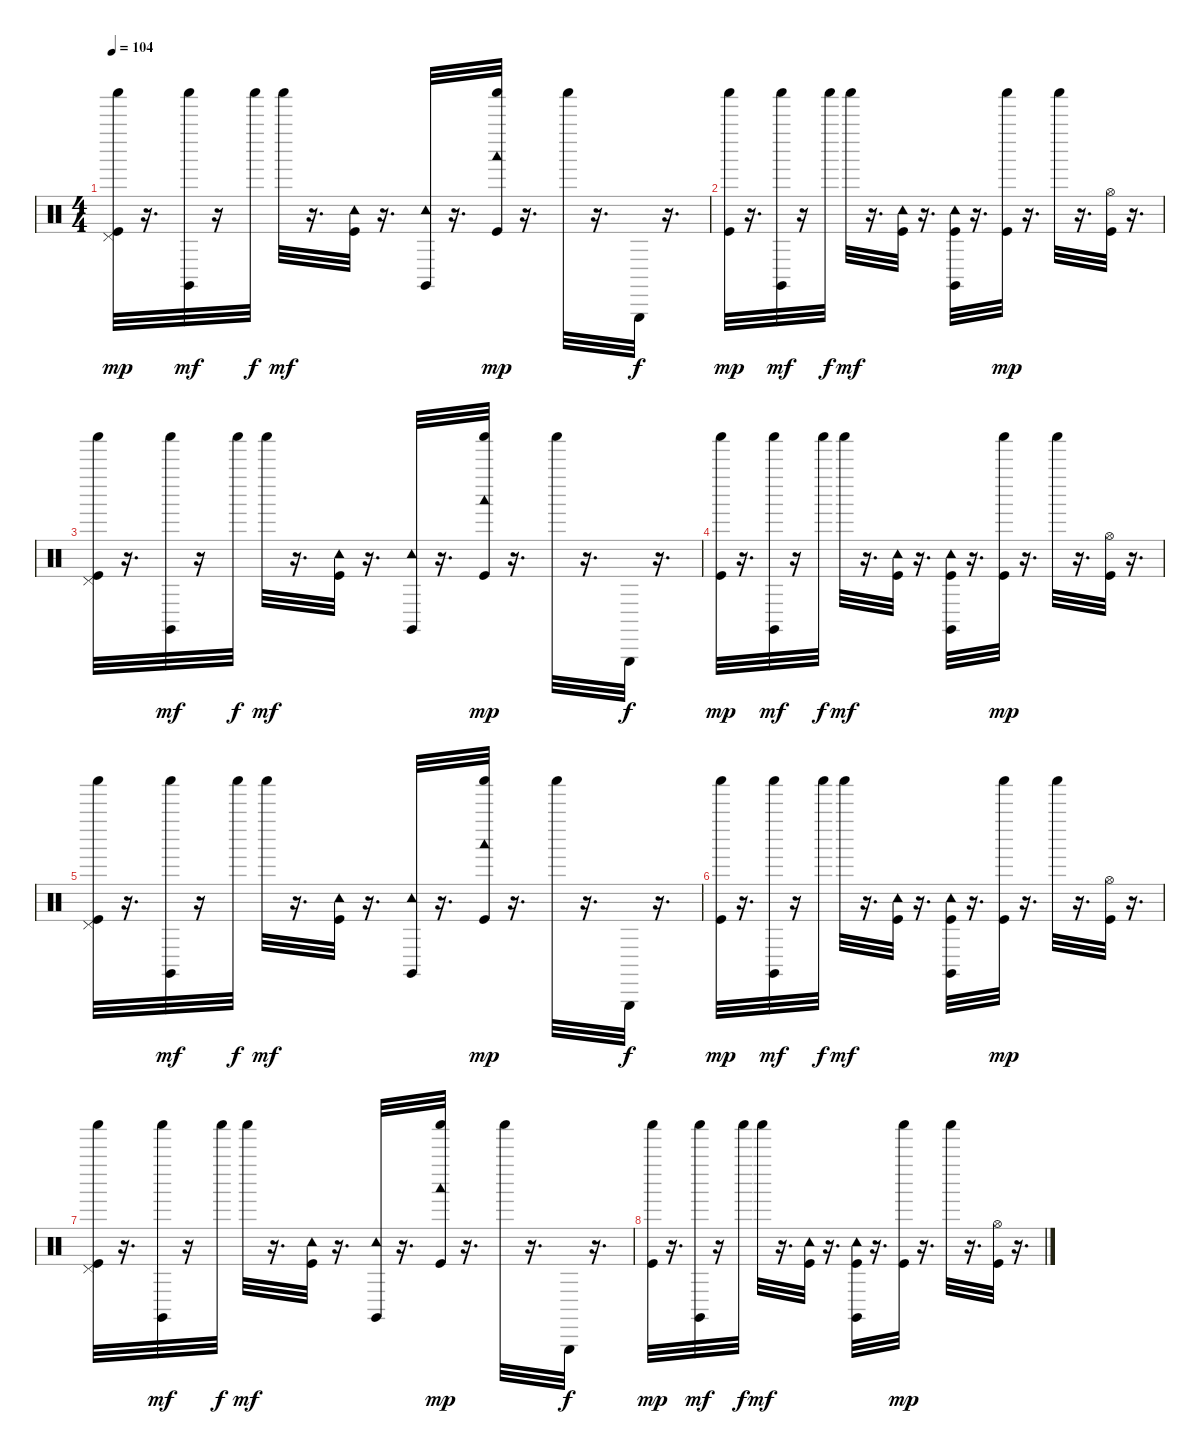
\track "" {instrument percussion}
\staff {score}
\articulation defaults
\ts (4 4)
\tempo 104
\clef neutral
\ks c
("Pedal Hi-Hat (hit)" "Kick (hit)" "Shaker (hit)").32{dy mp} r.16{d} ("Claves (hit)" "Shaker (hit)").32{dy mf} r.16 "Shaker (hit)".32{dy f} "Shaker (hit)".32{dy mf} r.16{d} ("Kick (hit)" "Tambourine (hit)").32 r.16{d} ("Claves (hit)" "Tambourine (hit)").32 r.16{d} ("Woodblock low (hit)" "Kick (hit)" "Shaker (hit)").32{dy mp} r.16{d} "Shaker (hit)".32 r.16{d} "Triangle (hit)".32{dy f} r.16{d} |
("Shaker (hit)" "Kick (hit)").32{dy mp} r.16{d} ("Claves (hit)" "Shaker (hit)").32{dy mf} r.16 "Shaker (hit)".32{dy f} "Shaker (hit)".32{dy mf} r.16{d} ("Kick (hit)" "Tambourine (hit)").32 r.16{d} ("Claves (hit)" "Tambourine (hit)" "Kick (hit)").32 r.16{d} ("Shaker (hit)" "Kick (hit)").32{dy mp} r.16{d} "Shaker (hit)".32 r.16{d} ("Hi-Hat (open)" "Kick (hit)").32 r.16{d} |
("Pedal Hi-Hat (hit)" "Kick (hit)" "Shaker (hit)").32 r.16{d} ("Claves (hit)" "Shaker (hit)").32{dy mf} r.16 "Shaker (hit)".32{dy f} "Shaker (hit)".32{dy mf} r.16{d} ("Kick (hit)" "Tambourine (hit)").32 r.16{d} ("Claves (hit)" "Tambourine (hit)").32 r.16{d} ("Woodblock low (hit)" "Kick (hit)" "Shaker (hit)").32{dy mp} r.16{d} "Shaker (hit)".32 r.16{d} "Triangle (hit)".32{dy f} r.16{d} |
("Shaker (hit)" "Kick (hit)").32{dy mp} r.16{d} ("Claves (hit)" "Shaker (hit)").32{dy mf} r.16 "Shaker (hit)".32{dy f} "Shaker (hit)".32{dy mf} r.16{d} ("Kick (hit)" "Tambourine (hit)").32 r.16{d} ("Claves (hit)" "Tambourine (hit)" "Kick (hit)").32 r.16{d} ("Shaker (hit)" "Kick (hit)").32{dy mp} r.16{d} "Shaker (hit)".32 r.16{d} ("Hi-Hat (open)" "Kick (hit)").32 r.16{d} |
("Pedal Hi-Hat (hit)" "Kick (hit)" "Shaker (hit)").32 r.16{d} ("Claves (hit)" "Shaker (hit)").32{dy mf} r.16 "Shaker (hit)".32{dy f} "Shaker (hit)".32{dy mf} r.16{d} ("Kick (hit)" "Tambourine (hit)").32 r.16{d} ("Claves (hit)" "Tambourine (hit)").32 r.16{d} ("Woodblock low (hit)" "Kick (hit)" "Shaker (hit)").32{dy mp} r.16{d} "Shaker (hit)".32 r.16{d} "Triangle (hit)".32{dy f} r.16{d} |
("Shaker (hit)" "Kick (hit)").32{dy mp} r.16{d} ("Claves (hit)" "Shaker (hit)").32{dy mf} r.16 "Shaker (hit)".32{dy f} "Shaker (hit)".32{dy mf} r.16{d} ("Kick (hit)" "Tambourine (hit)").32 r.16{d} ("Claves (hit)" "Tambourine (hit)" "Kick (hit)").32 r.16{d} ("Shaker (hit)" "Kick (hit)").32{dy mp} r.16{d} "Shaker (hit)".32 r.16{d} ("Hi-Hat (open)" "Kick (hit)").32 r.16{d} |
("Pedal Hi-Hat (hit)" "Kick (hit)" "Shaker (hit)").32 r.16{d} ("Claves (hit)" "Shaker (hit)").32{dy mf} r.16 "Shaker (hit)".32{dy f} "Shaker (hit)".32{dy mf} r.16{d} ("Kick (hit)" "Tambourine (hit)").32 r.16{d} ("Claves (hit)" "Tambourine (hit)").32 r.16{d} ("Woodblock low (hit)" "Kick (hit)" "Shaker (hit)").32{dy mp} r.16{d} "Shaker (hit)".32 r.16{d} "Triangle (hit)".32{dy f} r.16{d} |
("Shaker (hit)" "Kick (hit)").32{dy mp} r.16{d} ("Claves (hit)" "Shaker (hit)").32{dy mf} r.16 "Shaker (hit)".32{dy f} "Shaker (hit)".32{dy mf} r.16{d} ("Kick (hit)" "Tambourine (hit)").32 r.16{d} ("Claves (hit)" "Tambourine (hit)" "Kick (hit)").32 r.16{d} ("Shaker (hit)" "Kick (hit)").32{dy mp} r.16{d} "Shaker (hit)".32 r.16{d} ("Hi-Hat (open)" "Kick (hit)").32 r.16{d}
